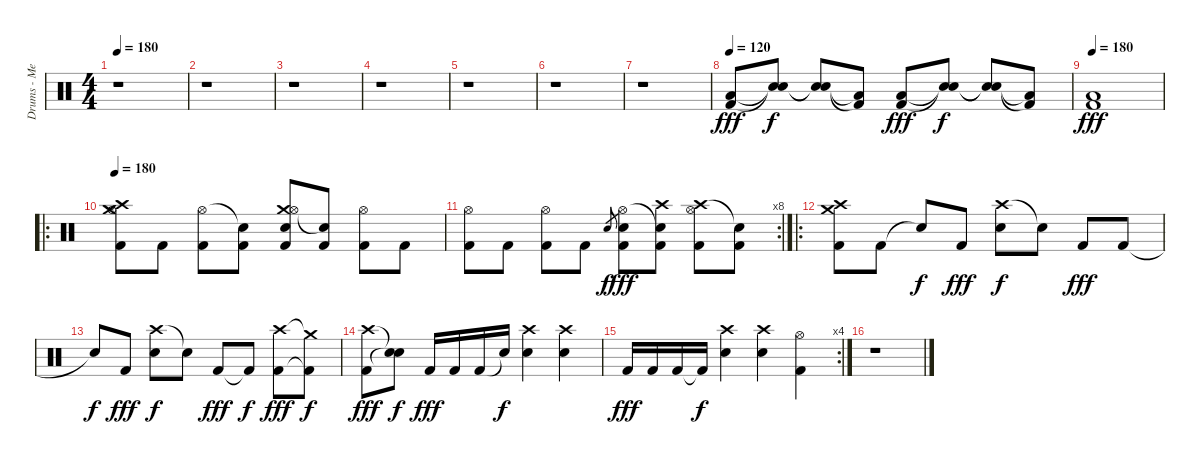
\track ("Drums - Mercedes" "Drums - Me") {instrument percussion}
\staff {score}
\articulation defaults
\ts (4 4)
\tempo 180
\clef neutral
\ks c
r.1{dy fff} |
r.1 |
r.1 |
r.1 |
r.1 |
r.1 |
r.1 |
\tempo 120
("Low Tom (hit)" "Kick (hit) 2").8 ("Snare (hit)"{t} "Snare (hit)"{t}).8{dy f} ("Snare (hit)"{t} "Snare (hit)"{t}).8 ("Low Tom (hit)"{t} "Kick (hit) 2"{t}).8 ("Low Tom (hit)" "Kick (hit) 2").8{dy fff} ("Snare (hit)"{t} "Snare (hit)"{t}).8{dy f} ("Snare (hit)"{t} "Snare (hit)"{t}).8 ("Low Tom (hit)"{t} "Kick (hit) 2"{t}).8 |
\tempo 180
("Low Tom (hit)" "Kick (hit) 2").1{dy fff} |
\ro
\tempo 180
("Crash high (hit)" "Crash medium (hit)" "Hi-Hat (open)" "Kick (hit) 2").8 "Kick (hit) 2".8 ("Hi-Hat (open)" "Kick (hit) 2").8 ("Snare (hit)"{t} "Kick (hit) 2").8 ("Crash medium (hit)" "Electric Snare (hit)" "Hi-Hat (open)" "Kick (hit) 2").8 ("Snare (hit)"{t} "Kick (hit) 2").8 ("Hi-Hat (open)" "Kick (hit) 2").8 "Kick (hit) 2".8 |
\rc 8
("Hi-Hat (open)" "Kick (hit) 2").8 "Kick (hit) 2".8 ("Hi-Hat (open)" "Kick (hit) 2").8 "Kick (hit) 2".8 "Electric Snare (hit)".8{gr dy f} ("Electric Snare (hit)" "Hi-Hat (open)" "Kick (hit) 2").8{dy fff} ("Crash high (hit)" "Snare (hit)"{t} "Kick (hit) 2").8 ("Crash high (hit)" "Hi-Hat (open)" "Kick (hit) 2").8 ("Snare (hit)"{t} "Kick (hit) 2").8 |
\ro
("Crash high (hit)" "Crash medium (hit)" "Kick (hit) 2").8 "Kick (hit) 2".8 "Snare (hit)"{t}.8{dy f} "Kick (hit) 2".8{dy fff} ("Crash high (hit)" "Electric Snare (hit)").8{dy f} "Snare (hit)"{t}.8 "Kick (hit) 2".8{dy fff} "Kick (hit) 2".8 |
"Snare (hit)"{t}.8{dy f} "Kick (hit) 2".8{dy fff} ("Crash high (hit)" "Electric Snare (hit)").8{dy f} "Snare (hit)"{t}.8 "Kick (hit) 2".8{dy fff} "Kick (hit) 2"{t}.8{dy f} ("Crash high (hit)" "Kick (hit) 2").8{dy fff} ("Crash medium (hit)"{t} "Kick (hit) 2"{t}).8{dy f} |
("Crash high (hit)" "Kick (hit) 2").8{dy fff} ("Snare (hit)"{t} "Snare (hit)"{t}).8{dy f} "Kick (hit) 2".16{dy fff} "Kick (hit) 2".16 "Kick (hit) 2".16 "Electric Snare (hit)"{t}.16{dy f} ("Crash high (hit)" "Electric Snare (hit)").4 ("Crash high (hit)" "Electric Snare (hit)").4 |
\rc 4 "Kick (hit) 2".16{dy fff} "Kick (hit) 2".16 "Kick (hit) 2".16 "Kick (hit) 2"{t}.16{dy f}
("Crash high (hit)" "Electric Snare (hit)").4 ("Crash high (hit)" "Electric Snare (hit)").4 ("Hi-Hat (open)" "Kick (hit) 2").4 |
r.1
